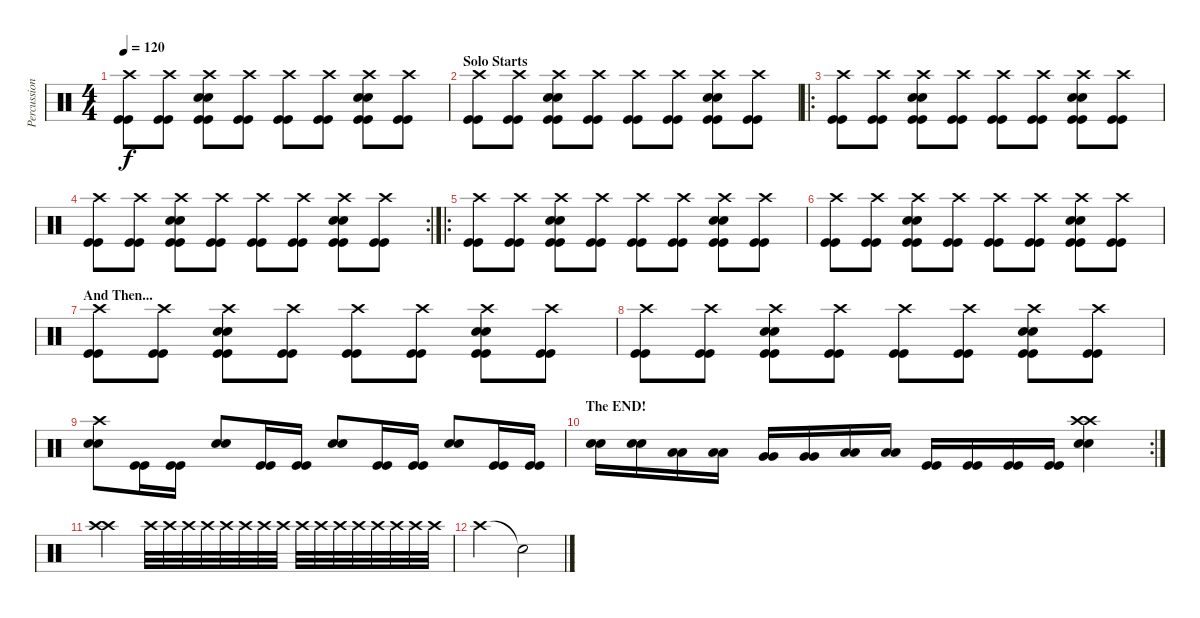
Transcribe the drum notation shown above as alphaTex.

\track ("Percussion" "Percussion") {instrument percussion}
\staff {score}
\articulation defaults
\ts (4 4)
\tempo 120
\clef neutral
\ks c
("Crash high (hit)" "Kick (hit)" "Kick (hit)").8{dy f} ("Crash high (hit)" "Kick (hit)" "Kick (hit)").8 ("Crash high (hit)" "Snare (hit) 2" "Snare (hit) 2" "Kick (hit)" "Kick (hit)").8 ("Crash high (hit)" "Kick (hit)" "Kick (hit)").8 ("Crash high (hit)" "Kick (hit)" "Kick (hit)").8 ("Crash high (hit)" "Kick (hit)" "Kick (hit)").8 ("Crash high (hit)" "Snare (hit) 2" "Snare (hit) 2" "Kick (hit)" "Kick (hit)").8 ("Crash high (hit)" "Kick (hit)" "Kick (hit)").8 |
\section ("" "Solo Starts")
("Crash high (hit)" "Kick (hit)" "Kick (hit)").8 ("Crash high (hit)" "Kick (hit)" "Kick (hit)").8 ("Crash high (hit)" "Snare (hit) 2" "Snare (hit) 2" "Kick (hit)" "Kick (hit)").8 ("Crash high (hit)" "Kick (hit)" "Kick (hit)").8 ("Crash high (hit)" "Kick (hit)" "Kick (hit)").8 ("Crash high (hit)" "Kick (hit)" "Kick (hit)").8 ("Crash high (hit)" "Snare (hit) 2" "Snare (hit) 2" "Kick (hit)" "Kick (hit)").8 ("Crash high (hit)" "Kick (hit)" "Kick (hit)").8 |
\ro
("Crash high (hit)" "Kick (hit)" "Kick (hit)").8 ("Crash high (hit)" "Kick (hit)" "Kick (hit)").8 ("Crash high (hit)" "Snare (hit) 2" "Snare (hit) 2" "Kick (hit)" "Kick (hit)").8 ("Crash high (hit)" "Kick (hit)" "Kick (hit)").8 ("Crash high (hit)" "Kick (hit)" "Kick (hit)").8 ("Crash high (hit)" "Kick (hit)" "Kick (hit)").8 ("Crash high (hit)" "Snare (hit) 2" "Snare (hit) 2" "Kick (hit)" "Kick (hit)").8 ("Crash high (hit)" "Kick (hit)" "Kick (hit)").8 |
\rc 2
("Crash high (hit)" "Kick (hit)" "Kick (hit)").8 ("Crash high (hit)" "Kick (hit)" "Kick (hit)").8 ("Crash high (hit)" "Snare (hit) 2" "Snare (hit) 2" "Kick (hit)" "Kick (hit)").8 ("Crash high (hit)" "Kick (hit)" "Kick (hit)").8 ("Crash high (hit)" "Kick (hit)" "Kick (hit)").8 ("Crash high (hit)" "Kick (hit)" "Kick (hit)").8 ("Crash high (hit)" "Snare (hit) 2" "Snare (hit) 2" "Kick (hit)" "Kick (hit)").8 ("Crash high (hit)" "Kick (hit)" "Kick (hit)").8 |
\ro
("Crash high (hit)" "Kick (hit)" "Kick (hit)").8 ("Crash high (hit)" "Kick (hit)" "Kick (hit)").8 ("Crash high (hit)" "Snare (hit) 2" "Snare (hit) 2" "Kick (hit)" "Kick (hit)").8 ("Crash high (hit)" "Kick (hit)" "Kick (hit)").8 ("Crash high (hit)" "Kick (hit)" "Kick (hit)").8 ("Crash high (hit)" "Kick (hit)" "Kick (hit)").8 ("Crash high (hit)" "Snare (hit) 2" "Snare (hit) 2" "Kick (hit)" "Kick (hit)").8 ("Crash high (hit)" "Kick (hit)" "Kick (hit)").8 |
("Crash high (hit)" "Kick (hit)" "Kick (hit)").8 ("Crash high (hit)" "Kick (hit)" "Kick (hit)").8 ("Crash high (hit)" "Snare (hit) 2" "Snare (hit) 2" "Kick (hit)" "Kick (hit)").8 ("Crash high (hit)" "Kick (hit)" "Kick (hit)").8 ("Crash high (hit)" "Kick (hit)" "Kick (hit)").8 ("Crash high (hit)" "Kick (hit)" "Kick (hit)").8 ("Crash high (hit)" "Snare (hit) 2" "Snare (hit) 2" "Kick (hit)" "Kick (hit)").8 ("Crash high (hit)" "Kick (hit)" "Kick (hit)").8 |
\section ("" "And Then...")
("Crash high (hit)" "Kick (hit)" "Kick (hit)").8 ("Crash high (hit)" "Kick (hit)" "Kick (hit)").8 ("Crash high (hit)" "Snare (hit) 2" "Snare (hit) 2" "Kick (hit)" "Kick (hit)").8 ("Crash high (hit)" "Kick (hit)" "Kick (hit)").8 ("Crash high (hit)" "Kick (hit)" "Kick (hit)").8 ("Crash high (hit)" "Kick (hit)" "Kick (hit)").8 ("Crash high (hit)" "Snare (hit) 2" "Snare (hit) 2" "Kick (hit)" "Kick (hit)").8 ("Crash high (hit)" "Kick (hit)" "Kick (hit)").8 |
("Crash high (hit)" "Kick (hit)" "Kick (hit)").8 ("Crash high (hit)" "Kick (hit)" "Kick (hit)").8 ("Crash high (hit)" "Snare (hit) 2" "Snare (hit) 2" "Kick (hit)" "Kick (hit)").8 ("Crash high (hit)" "Kick (hit)" "Kick (hit)").8 ("Crash high (hit)" "Kick (hit)" "Kick (hit)").8 ("Crash high (hit)" "Kick (hit)" "Kick (hit)").8 ("Crash high (hit)" "Snare (hit) 2" "Snare (hit) 2" "Kick (hit)" "Kick (hit)").8 ("Crash high (hit)" "Kick (hit)" "Kick (hit)").8 |
("Crash high (hit)" "Snare (hit) 2" "Snare (hit) 2").8 ("Kick (hit)" "Kick (hit)").16 ("Kick (hit)" "Kick (hit)").16 ("Snare (hit) 2" "Snare (hit) 2").8 ("Kick (hit)" "Kick (hit)").16 ("Kick (hit)" "Kick (hit)").16 ("Snare (hit) 2" "Snare (hit) 2").8 ("Kick (hit)" "Kick (hit)").16 ("Kick (hit)" "Kick (hit)").16 ("Snare (hit) 2" "Snare (hit) 2").8 ("Kick (hit)" "Kick (hit)").16 ("Kick (hit)" "Kick (hit)").16 |
\rc 2
\section ("" "The END!")
("Snare (hit) 2" "Snare (hit) 2").16 ("Snare (hit) 2" "Snare (hit) 2").16 ("Low Tom (hit)" "Low Tom (hit)").16 ("Low Tom (hit)" "Low Tom (hit)").16 ("Very Low Tom (hit)" "Very Low Tom (hit)").16 ("Very Low Tom (hit)" "Very Low Tom (hit)").16 ("Low Floor Tom (hit)" "Low Floor Tom (hit)").16 ("Low Floor Tom (hit)" "Low Floor Tom (hit)").16 ("Kick (hit)" "Kick (hit)").16 ("Kick (hit)" "Kick (hit)").16 ("Kick (hit)" "Kick (hit)").16 ("Kick (hit)" "Kick (hit)").16 ("Crash high (hit)" "Crash high (hit)" "Snare (hit) 2" "Snare (hit) 2").4 |
("Crash high (hit)" "Crash high (hit)").2 "Crash high (hit)".32 "Crash high (hit)".32 "Crash high (hit)".32 "Crash high (hit)".32 "Crash high (hit)".32 "Crash high (hit)".32 "Crash high (hit)".32 "Crash high (hit)".32 "Crash high (hit)".32 "Crash high (hit)".32 "Crash high (hit)".32 "Crash high (hit)".32 "Crash high (hit)".32 "Crash high (hit)".32 "Crash high (hit)".32 "Crash high (hit)".32 |
"Crash high (hit)".2 "Snare (hit)"{t}.2
